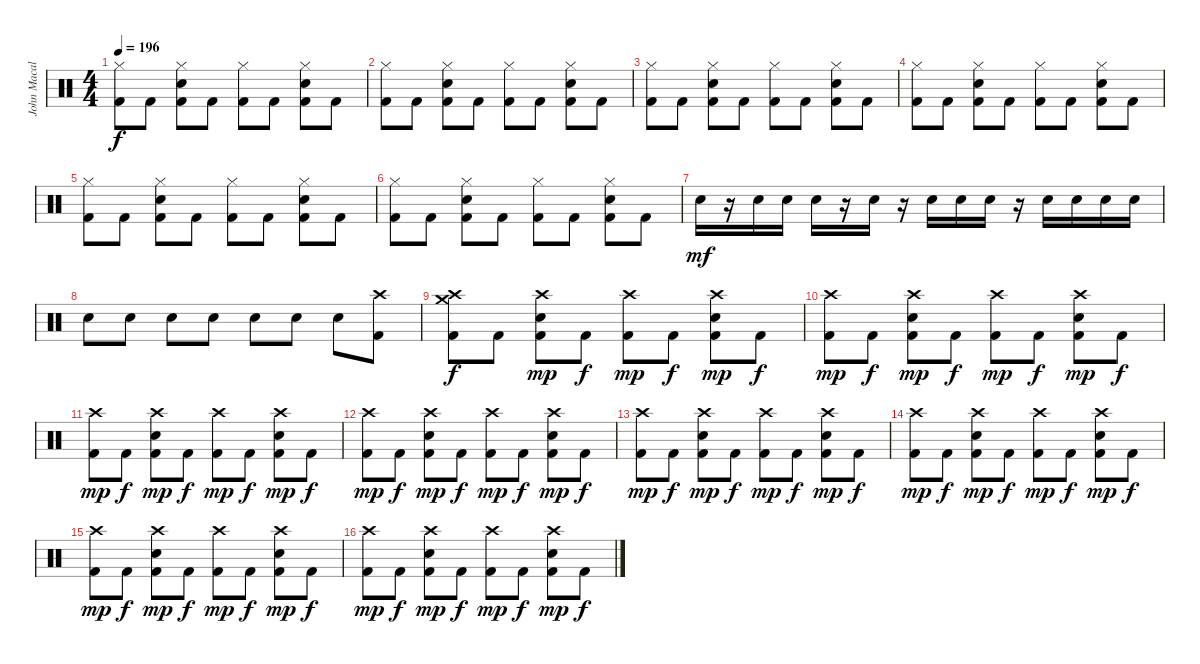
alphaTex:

\track ("John Macaluso" "John Macal") {instrument percussion}
\staff {score}
\articulation defaults
\ts (4 4)
\tempo 196
\clef neutral
\ks c
("Hi-Hat (closed)" "Kick (hit) 2").8{dy f} "Kick (hit) 2".8 ("Electric Snare (hit)" "Hi-Hat (closed)" "Kick (hit) 2").8 "Kick (hit) 2".8 ("Hi-Hat (closed)" "Kick (hit) 2").8 "Kick (hit) 2".8 ("Electric Snare (hit)" "Hi-Hat (closed)" "Kick (hit) 2").8 "Kick (hit) 2".8 |
("Hi-Hat (closed)" "Kick (hit) 2").8 "Kick (hit) 2".8 ("Electric Snare (hit)" "Hi-Hat (closed)" "Kick (hit) 2").8 "Kick (hit) 2".8 ("Hi-Hat (closed)" "Kick (hit) 2").8 "Kick (hit) 2".8 ("Electric Snare (hit)" "Hi-Hat (closed)" "Kick (hit) 2").8 "Kick (hit) 2".8 |
("Hi-Hat (closed)" "Kick (hit) 2").8 "Kick (hit) 2".8 ("Electric Snare (hit)" "Hi-Hat (closed)" "Kick (hit) 2").8 "Kick (hit) 2".8 ("Hi-Hat (closed)" "Kick (hit) 2").8 "Kick (hit) 2".8 ("Electric Snare (hit)" "Hi-Hat (closed)" "Kick (hit) 2").8 "Kick (hit) 2".8 |
("Hi-Hat (closed)" "Kick (hit) 2").8 "Kick (hit) 2".8 ("Electric Snare (hit)" "Hi-Hat (closed)" "Kick (hit) 2").8 "Kick (hit) 2".8 ("Hi-Hat (closed)" "Kick (hit) 2").8 "Kick (hit) 2".8 ("Electric Snare (hit)" "Hi-Hat (closed)" "Kick (hit) 2").8 "Kick (hit) 2".8 |
("Hi-Hat (closed)" "Kick (hit) 2").8 "Kick (hit) 2".8 ("Electric Snare (hit)" "Hi-Hat (closed)" "Kick (hit) 2").8 "Kick (hit) 2".8 ("Hi-Hat (closed)" "Kick (hit) 2").8 "Kick (hit) 2".8 ("Electric Snare (hit)" "Hi-Hat (closed)" "Kick (hit) 2").8 "Kick (hit) 2".8 |
("Hi-Hat (closed)" "Kick (hit) 2").8 "Kick (hit) 2".8 ("Electric Snare (hit)" "Hi-Hat (closed)" "Kick (hit) 2").8 "Kick (hit) 2".8 ("Hi-Hat (closed)" "Kick (hit) 2").8 "Kick (hit) 2".8 ("Electric Snare (hit)" "Hi-Hat (closed)" "Kick (hit) 2").8 "Kick (hit) 2".8 |
"Electric Snare (hit)".16{dy mf} r.16 "Electric Snare (hit)".16 "Electric Snare (hit)".16 "Electric Snare (hit)".16 r.16 "Electric Snare (hit)".16 r.16 "Electric Snare (hit)".16 "Electric Snare (hit)".16 "Electric Snare (hit)".16 r.16 "Electric Snare (hit)".16 "Electric Snare (hit)".16 "Electric Snare (hit)".16 "Electric Snare (hit)".16 |
"Electric Snare (hit)".8 "Electric Snare (hit)".8 "Electric Snare (hit)".8 "Electric Snare (hit)".8 "Electric Snare (hit)".8 "Electric Snare (hit)".8 "Electric Snare (hit)".8 ("Crash high (hit)" "Kick (hit) 2").8 |
("Crash medium (hit)" "Crash high (hit)" "Kick (hit) 2").8{dy f} "Kick (hit) 2".8 ("Crash high (hit)" "Electric Snare (hit)" "Kick (hit) 2").8{dy mp} "Kick (hit) 2".8{dy f} ("Crash high (hit)" "Kick (hit) 2").8{dy mp} "Kick (hit) 2".8{dy f} ("Crash high (hit)" "Electric Snare (hit)" "Kick (hit) 2").8{dy mp} "Kick (hit) 2".8{dy f} |
("Crash high (hit)" "Kick (hit) 2").8{dy mp} "Kick (hit) 2".8{dy f} ("Crash high (hit)" "Electric Snare (hit)" "Kick (hit) 2").8{dy mp} "Kick (hit) 2".8{dy f} ("Crash high (hit)" "Kick (hit) 2").8{dy mp} "Kick (hit) 2".8{dy f} ("Crash high (hit)" "Electric Snare (hit)" "Kick (hit) 2").8{dy mp} "Kick (hit) 2".8{dy f} |
("Crash high (hit)" "Kick (hit) 2").8{dy mp} "Kick (hit) 2".8{dy f} ("Crash high (hit)" "Electric Snare (hit)" "Kick (hit) 2").8{dy mp} "Kick (hit) 2".8{dy f} ("Crash high (hit)" "Kick (hit) 2").8{dy mp} "Kick (hit) 2".8{dy f} ("Crash high (hit)" "Electric Snare (hit)" "Kick (hit) 2").8{dy mp} "Kick (hit) 2".8{dy f} |
("Crash high (hit)" "Kick (hit) 2").8{dy mp} "Kick (hit) 2".8{dy f} ("Crash high (hit)" "Electric Snare (hit)" "Kick (hit) 2").8{dy mp} "Kick (hit) 2".8{dy f} ("Crash high (hit)" "Kick (hit) 2").8{dy mp} "Kick (hit) 2".8{dy f} ("Crash high (hit)" "Electric Snare (hit)" "Kick (hit) 2").8{dy mp} "Kick (hit) 2".8{dy f} |
("Crash high (hit)" "Kick (hit) 2").8{dy mp} "Kick (hit) 2".8{dy f} ("Crash high (hit)" "Electric Snare (hit)" "Kick (hit) 2").8{dy mp} "Kick (hit) 2".8{dy f} ("Crash high (hit)" "Kick (hit) 2").8{dy mp} "Kick (hit) 2".8{dy f} ("Crash high (hit)" "Electric Snare (hit)" "Kick (hit) 2").8{dy mp} "Kick (hit) 2".8{dy f} |
("Crash high (hit)" "Kick (hit) 2").8{dy mp} "Kick (hit) 2".8{dy f} ("Crash high (hit)" "Electric Snare (hit)" "Kick (hit) 2").8{dy mp} "Kick (hit) 2".8{dy f} ("Crash high (hit)" "Kick (hit) 2").8{dy mp} "Kick (hit) 2".8{dy f} ("Crash high (hit)" "Electric Snare (hit)" "Kick (hit) 2").8{dy mp} "Kick (hit) 2".8{dy f} |
("Crash high (hit)" "Kick (hit) 2").8{dy mp} "Kick (hit) 2".8{dy f} ("Crash high (hit)" "Electric Snare (hit)" "Kick (hit) 2").8{dy mp} "Kick (hit) 2".8{dy f} ("Crash high (hit)" "Kick (hit) 2").8{dy mp} "Kick (hit) 2".8{dy f} ("Crash high (hit)" "Electric Snare (hit)" "Kick (hit) 2").8{dy mp} "Kick (hit) 2".8{dy f} |
("Crash high (hit)" "Kick (hit) 2").8{dy mp} "Kick (hit) 2".8{dy f} ("Crash high (hit)" "Electric Snare (hit)" "Kick (hit) 2").8{dy mp} "Kick (hit) 2".8{dy f} ("Crash high (hit)" "Kick (hit) 2").8{dy mp} "Kick (hit) 2".8{dy f} ("Crash high (hit)" "Electric Snare (hit)" "Kick (hit) 2").8{dy mp} "Kick (hit) 2".8{dy f}
